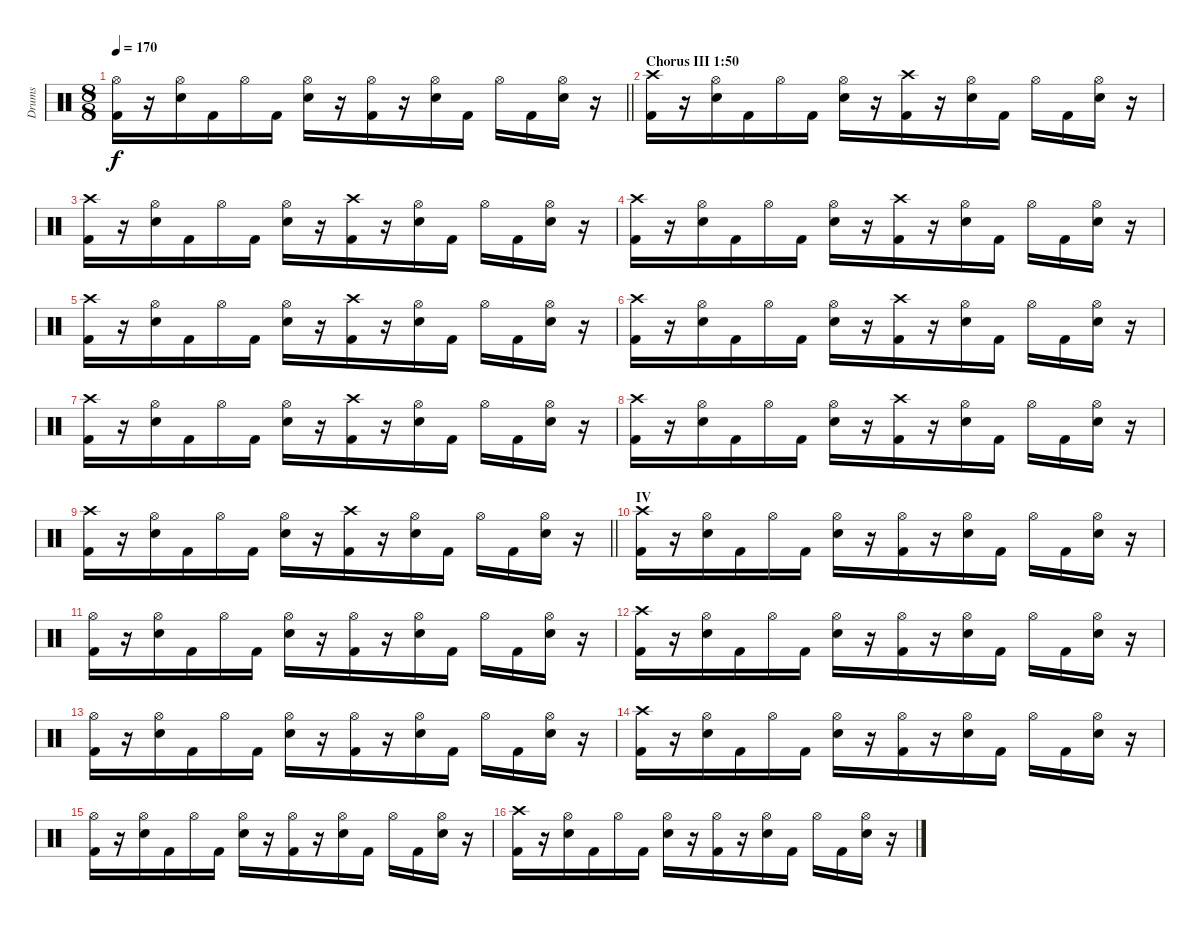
\track ("Drums" "Drums") {mute instrument percussion}
\staff {score}
\articulation defaults
\ts (8 8)
\tempo 170
\clef neutral
\barLineRight lightlight
\ks c
("Hi-Hat (open)" "Kick (hit) 2").16{dy f} r.16 ("Hi-Hat (open)" "Snare (hit) 2").16 "Kick (hit) 2".16 "Hi-Hat (open)".16 "Kick (hit) 2".16 ("Hi-Hat (open)" "Snare (hit) 2").16 r.16 ("Hi-Hat (open)" "Kick (hit) 2").16 r.16 ("Hi-Hat (open)" "Snare (hit) 2").16 "Kick (hit) 2".16 "Hi-Hat (open)".16 "Kick (hit) 2".16 ("Hi-Hat (open)" "Snare (hit) 2").16 r.16 |
\section ("" "Chorus III 1:50")
("Crash high (hit)" "Kick (hit) 2").16 r.16 ("Hi-Hat (open)" "Snare (hit) 2").16 "Kick (hit) 2".16 "Hi-Hat (open)".16 "Kick (hit) 2".16 ("Hi-Hat (open)" "Snare (hit) 2").16 r.16 ("Crash high (hit)" "Kick (hit) 2").16 r.16 ("Hi-Hat (open)" "Snare (hit) 2").16 "Kick (hit) 2".16 "Hi-Hat (open)".16 "Kick (hit) 2".16 ("Hi-Hat (open)" "Snare (hit) 2").16 r.16 |
("Crash high (hit)" "Kick (hit) 2").16 r.16 ("Hi-Hat (open)" "Snare (hit) 2").16 "Kick (hit) 2".16 "Hi-Hat (open)".16 "Kick (hit) 2".16 ("Hi-Hat (open)" "Snare (hit) 2").16 r.16 ("Crash high (hit)" "Kick (hit) 2").16 r.16 ("Hi-Hat (open)" "Snare (hit) 2").16 "Kick (hit) 2".16 "Hi-Hat (open)".16 "Kick (hit) 2".16 ("Hi-Hat (open)" "Snare (hit) 2").16 r.16 |
("Crash high (hit)" "Kick (hit) 2").16 r.16 ("Hi-Hat (open)" "Snare (hit) 2").16 "Kick (hit) 2".16 "Hi-Hat (open)".16 "Kick (hit) 2".16 ("Hi-Hat (open)" "Snare (hit) 2").16 r.16 ("Crash high (hit)" "Kick (hit) 2").16 r.16 ("Hi-Hat (open)" "Snare (hit) 2").16 "Kick (hit) 2".16 "Hi-Hat (open)".16 "Kick (hit) 2".16 ("Hi-Hat (open)" "Snare (hit) 2").16 r.16 |
("Crash high (hit)" "Kick (hit) 2").16 r.16 ("Hi-Hat (open)" "Snare (hit) 2").16 "Kick (hit) 2".16 "Hi-Hat (open)".16 "Kick (hit) 2".16 ("Hi-Hat (open)" "Snare (hit) 2").16 r.16 ("Crash high (hit)" "Kick (hit) 2").16 r.16 ("Hi-Hat (open)" "Snare (hit) 2").16 "Kick (hit) 2".16 "Hi-Hat (open)".16 "Kick (hit) 2".16 ("Hi-Hat (open)" "Snare (hit) 2").16 r.16 |
("Crash high (hit)" "Kick (hit) 2").16 r.16 ("Hi-Hat (open)" "Snare (hit) 2").16 "Kick (hit) 2".16 "Hi-Hat (open)".16 "Kick (hit) 2".16 ("Hi-Hat (open)" "Snare (hit) 2").16 r.16 ("Crash high (hit)" "Kick (hit) 2").16 r.16 ("Hi-Hat (open)" "Snare (hit) 2").16 "Kick (hit) 2".16 "Hi-Hat (open)".16 "Kick (hit) 2".16 ("Hi-Hat (open)" "Snare (hit) 2").16 r.16 |
("Crash high (hit)" "Kick (hit) 2").16 r.16 ("Hi-Hat (open)" "Snare (hit) 2").16 "Kick (hit) 2".16 "Hi-Hat (open)".16 "Kick (hit) 2".16 ("Hi-Hat (open)" "Snare (hit) 2").16 r.16 ("Crash high (hit)" "Kick (hit) 2").16 r.16 ("Hi-Hat (open)" "Snare (hit) 2").16 "Kick (hit) 2".16 "Hi-Hat (open)".16 "Kick (hit) 2".16 ("Hi-Hat (open)" "Snare (hit) 2").16 r.16 |
("Crash high (hit)" "Kick (hit) 2").16 r.16 ("Hi-Hat (open)" "Snare (hit) 2").16 "Kick (hit) 2".16 "Hi-Hat (open)".16 "Kick (hit) 2".16 ("Hi-Hat (open)" "Snare (hit) 2").16 r.16 ("Crash high (hit)" "Kick (hit) 2").16 r.16 ("Hi-Hat (open)" "Snare (hit) 2").16 "Kick (hit) 2".16 "Hi-Hat (open)".16 "Kick (hit) 2".16 ("Hi-Hat (open)" "Snare (hit) 2").16 r.16 |
\barLineRight lightlight
("Crash high (hit)" "Kick (hit) 2").16 r.16 ("Hi-Hat (open)" "Snare (hit) 2").16 "Kick (hit) 2".16 "Hi-Hat (open)".16 "Kick (hit) 2".16 ("Hi-Hat (open)" "Snare (hit) 2").16 r.16 ("Crash high (hit)" "Kick (hit) 2").16 r.16 ("Hi-Hat (open)" "Snare (hit) 2").16 "Kick (hit) 2".16 "Hi-Hat (open)".16 "Kick (hit) 2".16 ("Hi-Hat (open)" "Snare (hit) 2").16 r.16 |
\section ("" "IV")
("Crash high (hit)" "Kick (hit) 2").16 r.16 ("Hi-Hat (open)" "Snare (hit) 2").16 "Kick (hit) 2".16 "Hi-Hat (open)".16 "Kick (hit) 2".16 ("Hi-Hat (open)" "Snare (hit) 2").16 r.16 ("Hi-Hat (open)" "Kick (hit) 2").16 r.16 ("Hi-Hat (open)" "Snare (hit) 2").16 "Kick (hit) 2".16 "Hi-Hat (open)".16 "Kick (hit) 2".16 ("Hi-Hat (open)" "Snare (hit) 2").16 r.16 |
("Hi-Hat (open)" "Kick (hit) 2").16 r.16 ("Hi-Hat (open)" "Snare (hit) 2").16 "Kick (hit) 2".16 "Hi-Hat (open)".16 "Kick (hit) 2".16 ("Hi-Hat (open)" "Snare (hit) 2").16 r.16 ("Hi-Hat (open)" "Kick (hit) 2").16 r.16 ("Hi-Hat (open)" "Snare (hit) 2").16 "Kick (hit) 2".16 "Hi-Hat (open)".16 "Kick (hit) 2".16 ("Hi-Hat (open)" "Snare (hit) 2").16 r.16 |
("Crash high (hit)" "Kick (hit) 2").16 r.16 ("Hi-Hat (open)" "Snare (hit) 2").16 "Kick (hit) 2".16 "Hi-Hat (open)".16 "Kick (hit) 2".16 ("Hi-Hat (open)" "Snare (hit) 2").16 r.16 ("Hi-Hat (open)" "Kick (hit) 2").16 r.16 ("Hi-Hat (open)" "Snare (hit) 2").16 "Kick (hit) 2".16 "Hi-Hat (open)".16 "Kick (hit) 2".16 ("Hi-Hat (open)" "Snare (hit) 2").16 r.16 |
("Hi-Hat (open)" "Kick (hit) 2").16 r.16 ("Hi-Hat (open)" "Snare (hit) 2").16 "Kick (hit) 2".16 "Hi-Hat (open)".16 "Kick (hit) 2".16 ("Hi-Hat (open)" "Snare (hit) 2").16 r.16 ("Hi-Hat (open)" "Kick (hit) 2").16 r.16 ("Hi-Hat (open)" "Snare (hit) 2").16 "Kick (hit) 2".16 "Hi-Hat (open)".16 "Kick (hit) 2".16 ("Hi-Hat (open)" "Snare (hit) 2").16 r.16 |
("Crash high (hit)" "Kick (hit) 2").16 r.16 ("Hi-Hat (open)" "Snare (hit) 2").16 "Kick (hit) 2".16 "Hi-Hat (open)".16 "Kick (hit) 2".16 ("Hi-Hat (open)" "Snare (hit) 2").16 r.16 ("Hi-Hat (open)" "Kick (hit) 2").16 r.16 ("Hi-Hat (open)" "Snare (hit) 2").16 "Kick (hit) 2".16 "Hi-Hat (open)".16 "Kick (hit) 2".16 ("Hi-Hat (open)" "Snare (hit) 2").16 r.16 |
("Hi-Hat (open)" "Kick (hit) 2").16 r.16 ("Hi-Hat (open)" "Snare (hit) 2").16 "Kick (hit) 2".16 "Hi-Hat (open)".16 "Kick (hit) 2".16 ("Hi-Hat (open)" "Snare (hit) 2").16 r.16 ("Hi-Hat (open)" "Kick (hit) 2").16 r.16 ("Hi-Hat (open)" "Snare (hit) 2").16 "Kick (hit) 2".16 "Hi-Hat (open)".16 "Kick (hit) 2".16 ("Hi-Hat (open)" "Snare (hit) 2").16 r.16 |
("Crash high (hit)" "Kick (hit) 2").16 r.16 ("Hi-Hat (open)" "Snare (hit) 2").16 "Kick (hit) 2".16 "Hi-Hat (open)".16 "Kick (hit) 2".16 ("Hi-Hat (open)" "Snare (hit) 2").16 r.16 ("Hi-Hat (open)" "Kick (hit) 2").16 r.16 ("Hi-Hat (open)" "Snare (hit) 2").16 "Kick (hit) 2".16 "Hi-Hat (open)".16 "Kick (hit) 2".16 ("Hi-Hat (open)" "Snare (hit) 2").16 r.16
